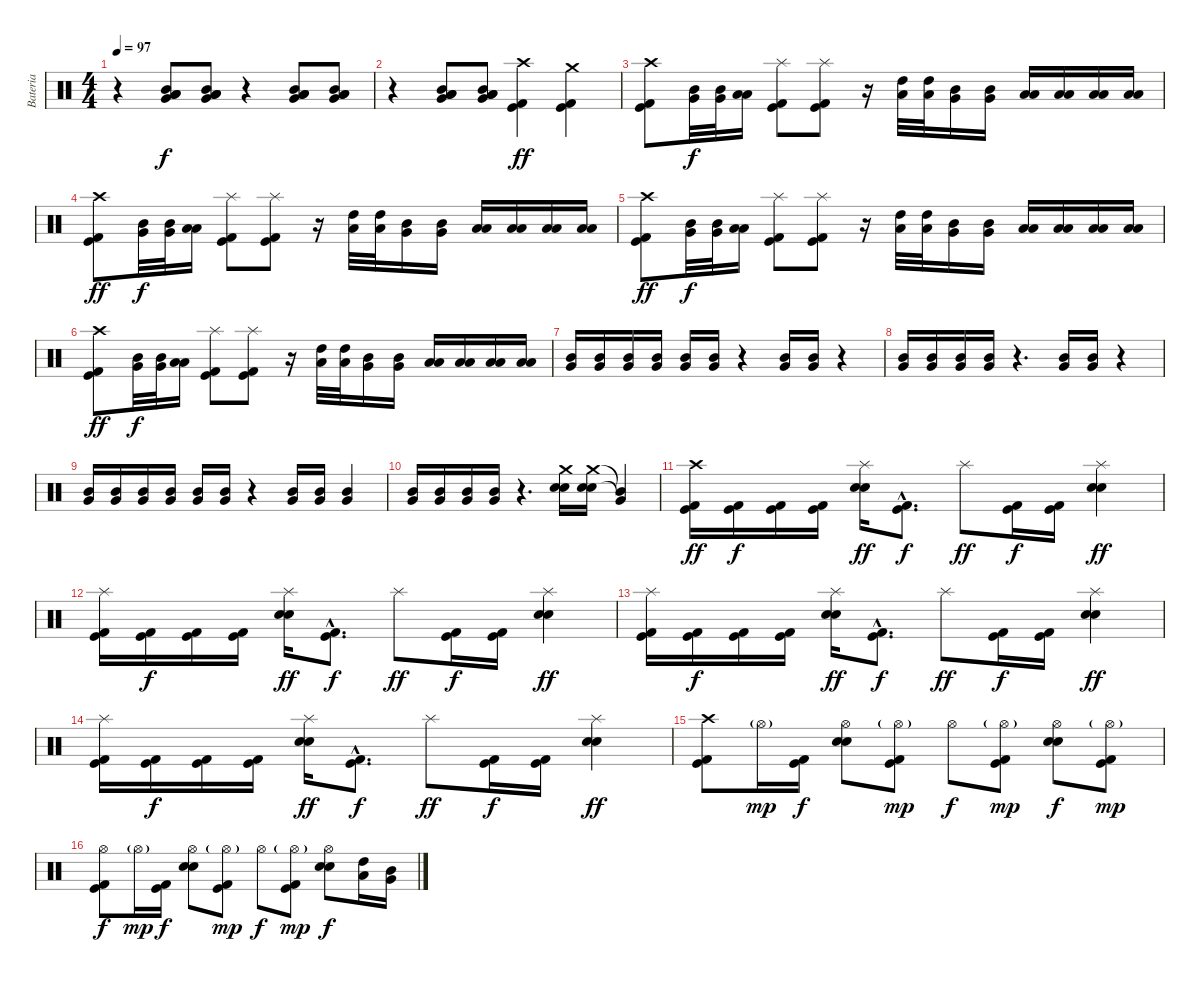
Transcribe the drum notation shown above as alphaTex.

\track ("Bateria" "Bateria") {instrument percussion}
\staff {score}
\articulation defaults
\ts (4 4)
\tempo 97
\clef neutral
\ks c
r.4{dy f} ("Mid Tom (hit)" "Very Low Tom (hit)" "Low Tom (hit)" "Low Floor Tom (hit)").8 ("Mid Tom (hit)" "Very Low Tom (hit)" "Low Tom (hit)" "Low Floor Tom (hit)").8 r.4 ("Mid Tom (hit)" "Very Low Tom (hit)" "Low Tom (hit)" "Low Floor Tom (hit)").8 ("Mid Tom (hit)" "Very Low Tom (hit)" "Low Tom (hit)" "Low Floor Tom (hit)").8 |
r.4 ("Mid Tom (hit)" "Very Low Tom (hit)" "Low Tom (hit)" "Low Floor Tom (hit)").8 ("Mid Tom (hit)" "Very Low Tom (hit)" "Low Tom (hit)" "Low Floor Tom (hit)").8 ("Crash high (hit)" "Kick (hit) 2" "Kick (hit)").4{dy ff} ("Crash medium (hit)" "Kick (hit) 2" "Kick (hit)").4 |
("Crash high (hit)" "Kick (hit) 2" "Kick (hit)").8 ("Mid Tom (hit)" "Very Low Tom (hit)").32{dy f} ("Mid Tom (hit)" "Very Low Tom (hit)").32 ("Low Tom (hit)" "Low Floor Tom (hit)").16 ("Splash (hit)" "Kick (hit) 2" "Kick (hit)").8 ("Splash (hit)" "Kick (hit) 2" "Kick (hit)").8 r.16 ("High Tom (hit)" "Low Tom (hit)").32 ("High Tom (hit)" "Low Tom (hit)").32 ("Mid Tom (hit)" "Very Low Tom (hit)").16 ("Mid Tom (hit)" "Very Low Tom (hit)").16 ("Low Tom (hit)" "Low Floor Tom (hit)").16 ("Low Tom (hit)" "Low Floor Tom (hit)").16 ("Low Tom (hit)" "Low Floor Tom (hit)").16 ("Low Tom (hit)" "Low Floor Tom (hit)").16 |
("Crash high (hit)" "Kick (hit) 2" "Kick (hit)").8{dy ff} ("Mid Tom (hit)" "Very Low Tom (hit)").32{dy f} ("Mid Tom (hit)" "Very Low Tom (hit)").32 ("Low Tom (hit)" "Low Floor Tom (hit)").16 ("Splash (hit)" "Kick (hit) 2" "Kick (hit)").8 ("Splash (hit)" "Kick (hit) 2" "Kick (hit)").8 r.16 ("High Tom (hit)" "Low Tom (hit)").32 ("High Tom (hit)" "Low Tom (hit)").32 ("Mid Tom (hit)" "Very Low Tom (hit)").16 ("Mid Tom (hit)" "Very Low Tom (hit)").16 ("Low Tom (hit)" "Low Floor Tom (hit)").16 ("Low Tom (hit)" "Low Floor Tom (hit)").16 ("Low Tom (hit)" "Low Floor Tom (hit)").16 ("Low Tom (hit)" "Low Floor Tom (hit)").16 |
("Crash high (hit)" "Kick (hit) 2" "Kick (hit)").8{dy ff} ("Mid Tom (hit)" "Very Low Tom (hit)").32{dy f} ("Mid Tom (hit)" "Very Low Tom (hit)").32 ("Low Tom (hit)" "Low Floor Tom (hit)").16 ("Splash (hit)" "Kick (hit) 2" "Kick (hit)").8 ("Splash (hit)" "Kick (hit) 2" "Kick (hit)").8 r.16 ("High Tom (hit)" "Low Tom (hit)").32 ("High Tom (hit)" "Low Tom (hit)").32 ("Mid Tom (hit)" "Very Low Tom (hit)").16 ("Mid Tom (hit)" "Very Low Tom (hit)").16 ("Low Tom (hit)" "Low Floor Tom (hit)").16 ("Low Tom (hit)" "Low Floor Tom (hit)").16 ("Low Tom (hit)" "Low Floor Tom (hit)").16 ("Low Tom (hit)" "Low Floor Tom (hit)").16 |
("Crash high (hit)" "Kick (hit) 2" "Kick (hit)").8{dy ff} ("Mid Tom (hit)" "Very Low Tom (hit)").32{dy f} ("Mid Tom (hit)" "Very Low Tom (hit)").32 ("Low Tom (hit)" "Low Floor Tom (hit)").16 ("Splash (hit)" "Kick (hit) 2" "Kick (hit)").8 ("Splash (hit)" "Kick (hit) 2" "Kick (hit)").8 r.16 ("High Tom (hit)" "Low Tom (hit)").32 ("High Tom (hit)" "Low Tom (hit)").32 ("Mid Tom (hit)" "Very Low Tom (hit)").16 ("Mid Tom (hit)" "Very Low Tom (hit)").16 ("Low Tom (hit)" "Low Floor Tom (hit)").16 ("Low Tom (hit)" "Low Floor Tom (hit)").16 ("Low Tom (hit)" "Low Floor Tom (hit)").16 ("Low Tom (hit)" "Low Floor Tom (hit)").16 |
("Mid Tom (hit)" "Very Low Tom (hit)").16 ("Mid Tom (hit)" "Very Low Tom (hit)").16 ("Mid Tom (hit)" "Very Low Tom (hit)").16 ("Mid Tom (hit)" "Very Low Tom (hit)").16 ("Mid Tom (hit)" "Very Low Tom (hit)").16 ("Mid Tom (hit)" "Very Low Tom (hit)").16 r.4 ("Mid Tom (hit)" "Very Low Tom (hit)").16 ("Mid Tom (hit)" "Very Low Tom (hit)").16 r.4 |
("Mid Tom (hit)" "Very Low Tom (hit)").16 ("Mid Tom (hit)" "Very Low Tom (hit)").16 ("Mid Tom (hit)" "Very Low Tom (hit)").16 ("Mid Tom (hit)" "Very Low Tom (hit)").16 r.4{d} ("Mid Tom (hit)" "Very Low Tom (hit)").16 ("Mid Tom (hit)" "Very Low Tom (hit)").16 r.4 |
("Mid Tom (hit)" "Very Low Tom (hit)").16 ("Mid Tom (hit)" "Very Low Tom (hit)").16 ("Mid Tom (hit)" "Very Low Tom (hit)").16 ("Mid Tom (hit)" "Very Low Tom (hit)").16 ("Mid Tom (hit)" "Very Low Tom (hit)").16 ("Mid Tom (hit)" "Very Low Tom (hit)").16 r.4 ("Mid Tom (hit)" "Very Low Tom (hit)").16 ("Mid Tom (hit)" "Very Low Tom (hit)").16 ("Mid Tom (hit)" "Very Low Tom (hit)").4 |
("Mid Tom (hit)" "Very Low Tom (hit)").16 ("Mid Tom (hit)" "Very Low Tom (hit)").16 ("Mid Tom (hit)" "Very Low Tom (hit)").16 ("Mid Tom (hit)" "Very Low Tom (hit)").16 r.4{d} ("Crash medium (hit)" "Electric Snare (hit)" "Snare (hit) 2").16 ("Crash medium (hit)" "Electric Snare (hit)" "Snare (hit) 2").16 ("Mid Tom (hit)"{t} "Very Low Tom (hit)"{t}).4 |
("Crash high (hit)" "Kick (hit) 2" "Kick (hit)").16{dy ff} ("Kick (hit) 2" "Kick (hit)").16{dy f} ("Kick (hit) 2" "Kick (hit)").16 ("Kick (hit) 2" "Kick (hit)").16 ("Splash (hit)" "Electric Snare (hit)" "Snare (hit) 2").16{dy ff} ("Kick (hit) 2"{hac} "Kick (hit)"{hac}).8{d dy f} "Splash (hit)".8{dy ff} ("Kick (hit) 2" "Kick (hit)").16{dy f} ("Kick (hit) 2" "Kick (hit)").16 ("Splash (hit)" "Electric Snare (hit)" "Snare (hit) 2").4{dy ff} |
("Splash (hit)" "Kick (hit) 2" "Kick (hit)").16 ("Kick (hit) 2" "Kick (hit)").16{dy f} ("Kick (hit) 2" "Kick (hit)").16 ("Kick (hit) 2" "Kick (hit)").16 ("Splash (hit)" "Electric Snare (hit)" "Snare (hit) 2").16{dy ff} ("Kick (hit) 2"{hac} "Kick (hit)"{hac}).8{d dy f} "Splash (hit)".8{dy ff} ("Kick (hit) 2" "Kick (hit)").16{dy f} ("Kick (hit) 2" "Kick (hit)").16 ("Splash (hit)" "Electric Snare (hit)" "Snare (hit) 2").4{dy ff} |
("Splash (hit)" "Kick (hit) 2" "Kick (hit)").16 ("Kick (hit) 2" "Kick (hit)").16{dy f} ("Kick (hit) 2" "Kick (hit)").16 ("Kick (hit) 2" "Kick (hit)").16 ("Splash (hit)" "Electric Snare (hit)" "Snare (hit) 2").16{dy ff} ("Kick (hit) 2"{hac} "Kick (hit)"{hac}).8{d dy f} "Splash (hit)".8{dy ff} ("Kick (hit) 2" "Kick (hit)").16{dy f} ("Kick (hit) 2" "Kick (hit)").16 ("Splash (hit)" "Electric Snare (hit)" "Snare (hit) 2").4{dy ff} |
("Splash (hit)" "Kick (hit) 2" "Kick (hit)").16 ("Kick (hit) 2" "Kick (hit)").16{dy f} ("Kick (hit) 2" "Kick (hit)").16 ("Kick (hit) 2" "Kick (hit)").16 ("Splash (hit)" "Electric Snare (hit)" "Snare (hit) 2").16{dy ff} ("Kick (hit) 2"{hac} "Kick (hit)"{hac}).8{d dy f} "Splash (hit)".8{dy ff} ("Kick (hit) 2" "Kick (hit)").16{dy f} ("Kick (hit) 2" "Kick (hit)").16 ("Splash (hit)" "Electric Snare (hit)" "Snare (hit) 2").4{dy ff} |
("Crash high (hit)" "Kick (hit) 2" "Kick (hit)").8 "Hi-Hat (open)"{g}.16{dy mp} ("Kick (hit) 2" "Kick (hit)").16{dy f} ("Hi-Hat (open)" "Electric Snare (hit)" "Snare (hit) 2").8 ("Hi-Hat (open)"{g} "Kick (hit) 2" "Kick (hit)").8{dy mp} "Hi-Hat (open)".8{dy f} ("Hi-Hat (open)"{g} "Kick (hit) 2" "Kick (hit)").8{dy mp} ("Hi-Hat (open)" "Electric Snare (hit)" "Snare (hit) 2").8{dy f} ("Hi-Hat (open)"{g} "Kick (hit) 2" "Kick (hit)").8{dy mp} |
("Hi-Hat (open)" "Kick (hit) 2" "Kick (hit)").8{dy f} "Hi-Hat (open)"{g}.16{dy mp} ("Kick (hit) 2" "Kick (hit)").16{dy f} ("Hi-Hat (open)" "Electric Snare (hit)" "Snare (hit) 2").8 ("Hi-Hat (open)"{g} "Kick (hit) 2" "Kick (hit)").8{dy mp} "Hi-Hat (open)".8{dy f} ("Hi-Hat (open)"{g} "Kick (hit) 2" "Kick (hit)").8{dy mp} ("Hi-Hat (open)" "Electric Snare (hit)" "Snare (hit) 2").8{dy f} ("High Tom (hit)" "Low Tom (hit)").16 ("Mid Tom (hit)" "Very Low Tom (hit)").16
